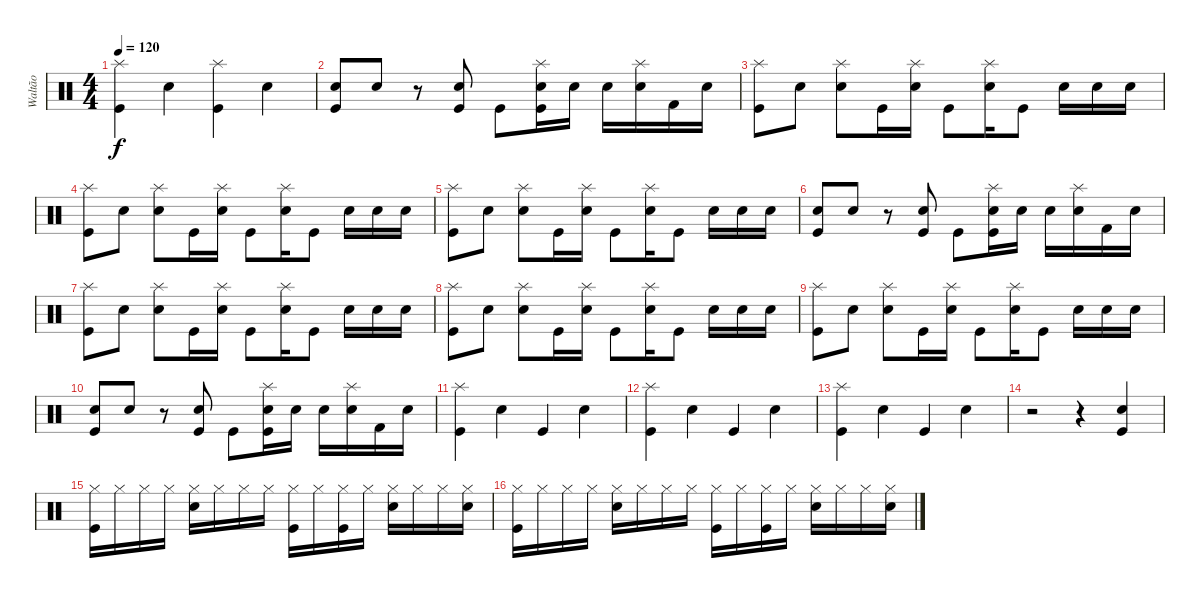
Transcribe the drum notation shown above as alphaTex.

\track ("Waltão" "Waltão") {instrument percussion}
\staff {score}
\articulation defaults
\ts (4 4)
\tempo 120
\clef neutral
\ks c
("Splash (hit)" "Kick (hit)").4{dy f} "Electric Snare (hit)".4 ("Splash (hit)" "Kick (hit)").4 "Electric Snare (hit)".4 |
("Electric Snare (hit)" "Kick (hit)").8 "Electric Snare (hit)".8 r.8 ("Electric Snare (hit)" "Kick (hit)").8 "Kick (hit)".8 ("Splash (hit)" "Electric Snare (hit)" "Kick (hit)").16 "Snare (hit) 2".16 "Electric Snare (hit)".16 ("Splash (hit)" "Snare (hit) 2").16 "Kick (hit) 2".16 "Snare (hit) 2".16 |
("Splash (hit)" "Kick (hit)").8 "Electric Snare (hit)".8 ("Splash (hit)" "Electric Snare (hit)").8 "Kick (hit)".16 ("Splash (hit)" "Electric Snare (hit)").16 "Kick (hit)".8 ("Splash (hit)" "Electric Snare (hit)").16 "Kick (hit)".8 "Electric Snare (hit)".16 "Electric Snare (hit)".16 "Electric Snare (hit)".16 |
("Splash (hit)" "Kick (hit)").8 "Electric Snare (hit)".8 ("Splash (hit)" "Electric Snare (hit)").8 "Kick (hit)".16 ("Splash (hit)" "Electric Snare (hit)").16 "Kick (hit)".8 ("Splash (hit)" "Electric Snare (hit)").16 "Kick (hit)".8 "Electric Snare (hit)".16 "Electric Snare (hit)".16 "Electric Snare (hit)".16 |
("Splash (hit)" "Kick (hit)").8 "Electric Snare (hit)".8 ("Splash (hit)" "Electric Snare (hit)").8 "Kick (hit)".16 ("Splash (hit)" "Electric Snare (hit)").16 "Kick (hit)".8 ("Splash (hit)" "Electric Snare (hit)").16 "Kick (hit)".8 "Electric Snare (hit)".16 "Electric Snare (hit)".16 "Electric Snare (hit)".16 |
("Electric Snare (hit)" "Kick (hit)").8 "Electric Snare (hit)".8 r.8 ("Electric Snare (hit)" "Kick (hit)").8 "Kick (hit)".8 ("Splash (hit)" "Electric Snare (hit)" "Kick (hit)").16 "Snare (hit) 2".16 "Electric Snare (hit)".16 ("Splash (hit)" "Snare (hit) 2").16 "Kick (hit) 2".16 "Snare (hit) 2".16 |
("Splash (hit)" "Kick (hit)").8 "Electric Snare (hit)".8 ("Splash (hit)" "Electric Snare (hit)").8 "Kick (hit)".16 ("Splash (hit)" "Electric Snare (hit)").16 "Kick (hit)".8 ("Splash (hit)" "Electric Snare (hit)").16 "Kick (hit)".8 "Electric Snare (hit)".16 "Electric Snare (hit)".16 "Electric Snare (hit)".16 |
("Splash (hit)" "Kick (hit)").8 "Electric Snare (hit)".8 ("Splash (hit)" "Electric Snare (hit)").8 "Kick (hit)".16 ("Splash (hit)" "Electric Snare (hit)").16 "Kick (hit)".8 ("Splash (hit)" "Electric Snare (hit)").16 "Kick (hit)".8 "Electric Snare (hit)".16 "Electric Snare (hit)".16 "Electric Snare (hit)".16 |
("Splash (hit)" "Kick (hit)").8 "Electric Snare (hit)".8 ("Splash (hit)" "Electric Snare (hit)").8 "Kick (hit)".16 ("Splash (hit)" "Electric Snare (hit)").16 "Kick (hit)".8 ("Splash (hit)" "Electric Snare (hit)").16 "Kick (hit)".8 "Electric Snare (hit)".16 "Electric Snare (hit)".16 "Electric Snare (hit)".16 |
("Electric Snare (hit)" "Kick (hit)").8 "Electric Snare (hit)".8 r.8 ("Electric Snare (hit)" "Kick (hit)").8 "Kick (hit)".8 ("Splash (hit)" "Electric Snare (hit)" "Kick (hit)").16 "Snare (hit) 2".16 "Electric Snare (hit)".16 ("Splash (hit)" "Snare (hit) 2").16 "Kick (hit) 2".16 "Snare (hit) 2".16 |
("Splash (hit)" "Kick (hit)").4 "Electric Snare (hit)".4 "Kick (hit)".4 "Electric Snare (hit)".4 |
("Splash (hit)" "Kick (hit)").4 "Electric Snare (hit)".4 "Kick (hit)".4 "Electric Snare (hit)".4 |
("Splash (hit)" "Kick (hit)").4 "Electric Snare (hit)".4 "Kick (hit)".4 "Electric Snare (hit)".4 |
r.2 r.4 ("Electric Snare (hit)" "Kick (hit)").4 |
("Kick (hit)" "Hi-Hat (closed)").16 "Hi-Hat (closed)".16 "Hi-Hat (closed)".16 "Hi-Hat (closed)".16 ("Electric Snare (hit)" "Hi-Hat (closed)").16 "Hi-Hat (closed)".16 "Hi-Hat (closed)".16 "Hi-Hat (closed)".16 ("Kick (hit)" "Hi-Hat (closed)").16 "Hi-Hat (closed)".16 ("Kick (hit)" "Hi-Hat (closed)").16 "Hi-Hat (closed)".16 ("Electric Snare (hit)" "Hi-Hat (closed)").16 "Hi-Hat (closed)".16 "Hi-Hat (closed)".16 ("Electric Snare (hit)" "Hi-Hat (closed)").16 |
("Kick (hit)" "Hi-Hat (closed)").16 "Hi-Hat (closed)".16 "Hi-Hat (closed)".16 "Hi-Hat (closed)".16 ("Electric Snare (hit)" "Hi-Hat (closed)").16 "Hi-Hat (closed)".16 "Hi-Hat (closed)".16 "Hi-Hat (closed)".16 ("Kick (hit)" "Hi-Hat (closed)").16 "Hi-Hat (closed)".16 ("Kick (hit)" "Hi-Hat (closed)").16 "Hi-Hat (closed)".16 ("Electric Snare (hit)" "Hi-Hat (closed)").16 "Hi-Hat (closed)".16 "Hi-Hat (closed)".16 ("Electric Snare (hit)" "Hi-Hat (closed)").16
